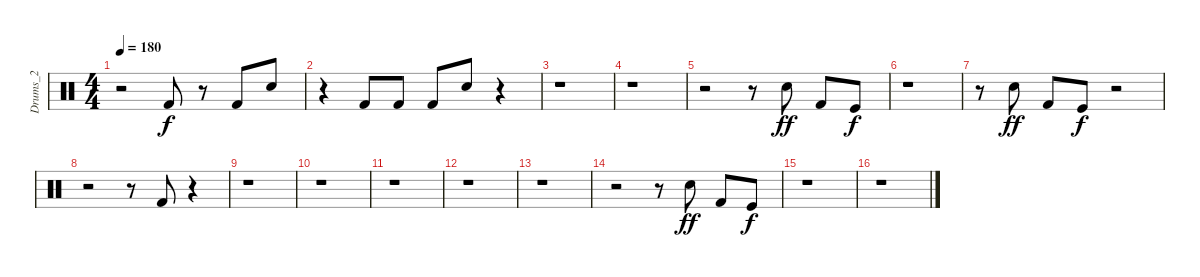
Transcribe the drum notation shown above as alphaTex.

\track ("Drums_2" "Drums_2") {instrument percussion}
\staff {score}
\articulation defaults
\ts (4 4)
\tempo 180
\clef neutral
\ks c
r.2{dy f} "Kick (hit) 2".8 r.8 "Kick (hit) 2".8 "Snare (hit) 2".8 |
r.4 "Kick (hit) 2".8 "Kick (hit) 2".8 "Kick (hit) 2".8 "Snare (hit) 2".8 r.4 |
r.1 |
r.1 |
r.2 r.8 "Snare (hit) 2".8{dy ff} "Kick (hit) 2".8 "Kick (hit)".8{dy f} |
r.1 |
r.8 "Snare (hit) 2".8{dy ff} "Kick (hit) 2".8 "Kick (hit)".8{dy f} r.2 |
r.2 r.8 "Kick (hit) 2".8 r.4 |
r.1 |
r.1 |
r.1 |
r.1 |
r.1 |
r.2 r.8 "Snare (hit) 2".8{dy ff} "Kick (hit) 2".8 "Kick (hit)".8{dy f} |
r.1 |
r.1
